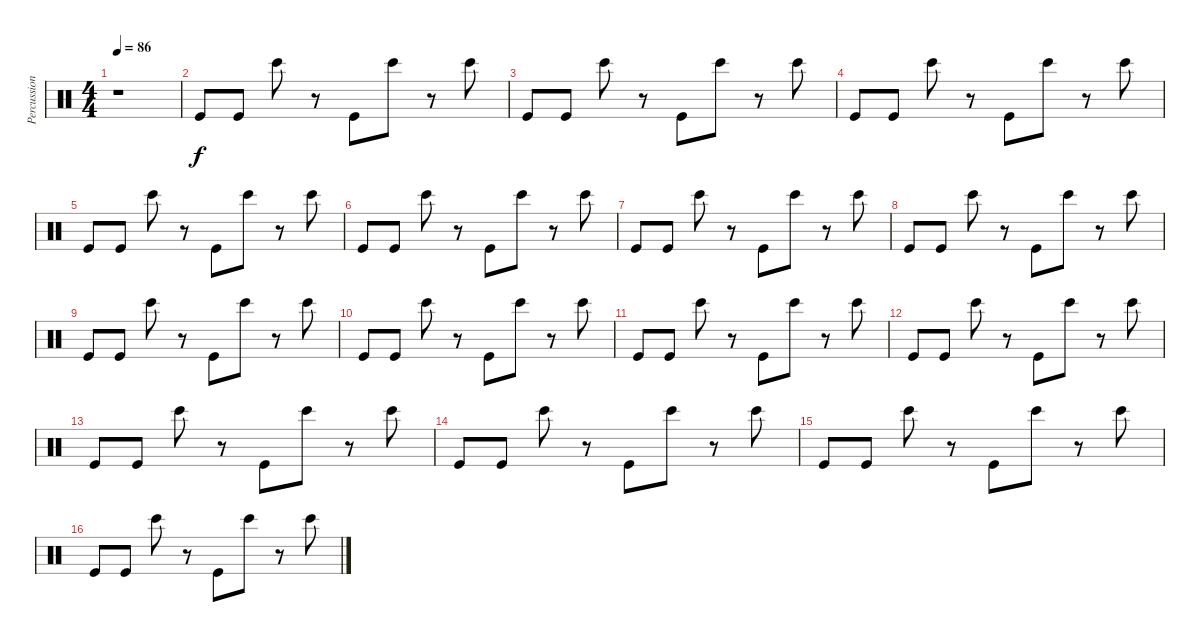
\track ("Percussion" "Percussion") {instrument percussion}
\staff {score}
\articulation defaults
\ts (4 4)
\tempo 86
\clef neutral
\ks c
r.1{dy f} |
"Kick (hit)".8 "Kick (hit)".8 "Bongo High (hit)".8 r.8 "Kick (hit)".8 "Bongo High (hit)".8 r.8 "Bongo High (hit)".8 |
"Kick (hit)".8 "Kick (hit)".8 "Bongo High (hit)".8 r.8 "Kick (hit)".8 "Bongo High (hit)".8 r.8 "Bongo High (hit)".8 |
"Kick (hit)".8 "Kick (hit)".8 "Bongo High (hit)".8 r.8 "Kick (hit)".8 "Bongo High (hit)".8 r.8 "Bongo High (hit)".8 |
"Kick (hit)".8 "Kick (hit)".8 "Bongo High (hit)".8 r.8 "Kick (hit)".8 "Bongo High (hit)".8 r.8 "Bongo High (hit)".8 |
"Kick (hit)".8 "Kick (hit)".8 "Bongo High (hit)".8 r.8 "Kick (hit)".8 "Bongo High (hit)".8 r.8 "Bongo High (hit)".8 |
"Kick (hit)".8 "Kick (hit)".8 "Bongo High (hit)".8 r.8 "Kick (hit)".8 "Bongo High (hit)".8 r.8 "Bongo High (hit)".8 |
"Kick (hit)".8 "Kick (hit)".8 "Bongo High (hit)".8 r.8 "Kick (hit)".8 "Bongo High (hit)".8 r.8 "Bongo High (hit)".8 |
"Kick (hit)".8 "Kick (hit)".8 "Bongo High (hit)".8 r.8 "Kick (hit)".8 "Bongo High (hit)".8 r.8 "Bongo High (hit)".8 |
"Kick (hit)".8 "Kick (hit)".8 "Bongo High (hit)".8 r.8 "Kick (hit)".8 "Bongo High (hit)".8 r.8 "Bongo High (hit)".8 |
"Kick (hit)".8 "Kick (hit)".8 "Bongo High (hit)".8 r.8 "Kick (hit)".8 "Bongo High (hit)".8 r.8 "Bongo High (hit)".8 |
"Kick (hit)".8 "Kick (hit)".8 "Bongo High (hit)".8 r.8 "Kick (hit)".8 "Bongo High (hit)".8 r.8 "Bongo High (hit)".8 |
"Kick (hit)".8 "Kick (hit)".8 "Bongo High (hit)".8 r.8 "Kick (hit)".8 "Bongo High (hit)".8 r.8 "Bongo High (hit)".8 |
"Kick (hit)".8 "Kick (hit)".8 "Bongo High (hit)".8 r.8 "Kick (hit)".8 "Bongo High (hit)".8 r.8 "Bongo High (hit)".8 |
"Kick (hit)".8 "Kick (hit)".8 "Bongo High (hit)".8 r.8 "Kick (hit)".8 "Bongo High (hit)".8 r.8 "Bongo High (hit)".8 |
"Kick (hit)".8 "Kick (hit)".8 "Bongo High (hit)".8 r.8 "Kick (hit)".8 "Bongo High (hit)".8 r.8 "Bongo High (hit)".8
